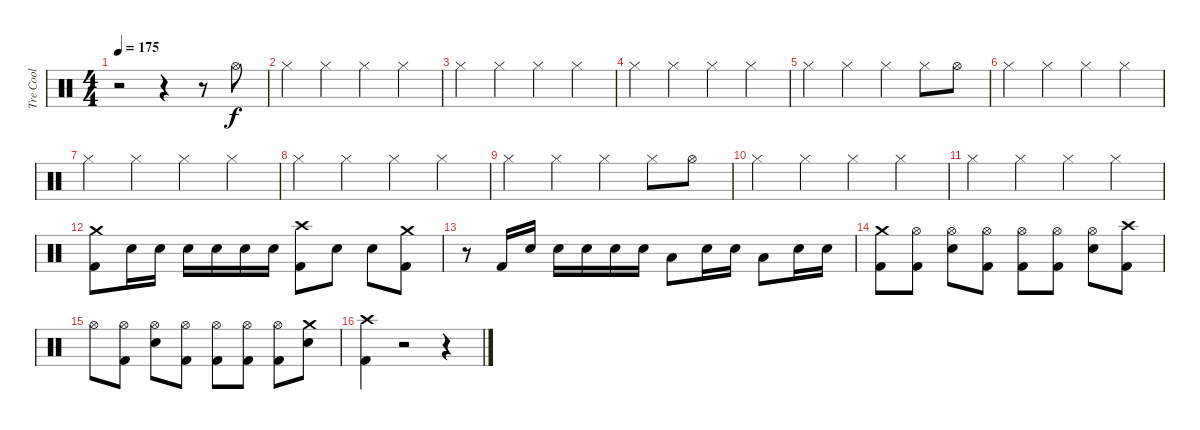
\track ("Tre Cool" "Tre Cool") {instrument percussion}
\staff {score}
\articulation defaults
\ts (4 4)
\tempo 175
\clef neutral
\ks c
r.2{dy f} r.4 r.8 "Hi-Hat (open)".8 |
"Hi-Hat (closed)".4 "Hi-Hat (closed)".4 "Hi-Hat (closed)".4 "Hi-Hat (closed)".4 |
"Hi-Hat (closed)".4 "Hi-Hat (closed)".4 "Hi-Hat (closed)".4 "Hi-Hat (closed)".4 |
"Hi-Hat (closed)".4 "Hi-Hat (closed)".4 "Hi-Hat (closed)".4 "Hi-Hat (closed)".4 |
"Hi-Hat (closed)".4 "Hi-Hat (closed)".4 "Hi-Hat (closed)".4 "Hi-Hat (closed)".8 "Hi-Hat (open)".8 |
"Hi-Hat (closed)".4 "Hi-Hat (closed)".4 "Hi-Hat (closed)".4 "Hi-Hat (closed)".4 |
"Hi-Hat (closed)".4 "Hi-Hat (closed)".4 "Hi-Hat (closed)".4 "Hi-Hat (closed)".4 |
"Hi-Hat (closed)".4 "Hi-Hat (closed)".4 "Hi-Hat (closed)".4 "Hi-Hat (closed)".4 |
"Hi-Hat (closed)".4 "Hi-Hat (closed)".4 "Hi-Hat (closed)".4 "Hi-Hat (closed)".8 "Hi-Hat (open)".8 |
"Hi-Hat (closed)".4 "Hi-Hat (closed)".4 "Hi-Hat (closed)".4 "Hi-Hat (closed)".4 |
"Hi-Hat (closed)".4 "Hi-Hat (closed)".4 "Hi-Hat (closed)".4 "Hi-Hat (closed)".4 |
("Kick (hit) 2" "Crash medium (hit)").8 "Snare (hit) 2".16 "Snare (hit) 2".16 "Snare (hit) 2".16 "Snare (hit) 2".16 "Snare (hit) 2".16 "Snare (hit) 2".16 ("Kick (hit) 2" "Crash high (hit)").8 "Snare (hit) 2".8 "Snare (hit) 2".8 ("Kick (hit) 2" "Crash medium (hit)").8 |
r.8 "Kick (hit) 2".16 "Snare (hit) 2".16 "Snare (hit) 2".16 "Snare (hit) 2".16 "Snare (hit) 2".16 "Snare (hit) 2".16 "Low Tom (hit)".8 "Snare (hit) 2".16 "Snare (hit) 2".16 "Low Tom (hit)".8 "Snare (hit) 2".16 "Snare (hit) 2".16 |
("Kick (hit) 2" "Crash medium (hit)").8 ("Kick (hit) 2" "Hi-Hat (open)").8 ("Snare (hit) 2" "Hi-Hat (open)").8 ("Kick (hit) 2" "Hi-Hat (open)").8 ("Kick (hit) 2" "Hi-Hat (open)").8 ("Kick (hit) 2" "Hi-Hat (open)").8 ("Snare (hit) 2" "Hi-Hat (open)").8 ("Kick (hit) 2" "Crash high (hit)").8 |
"Hi-Hat (open)".8 ("Kick (hit) 2" "Hi-Hat (open)").8 ("Snare (hit) 2" "Hi-Hat (open)").8 ("Kick (hit) 2" "Hi-Hat (open)").8 ("Kick (hit) 2" "Hi-Hat (open)").8 ("Kick (hit) 2" "Hi-Hat (open)").8 ("Kick (hit) 2" "Hi-Hat (open)").8 ("Snare (hit) 2" "Crash medium (hit)").8 |
("Kick (hit) 2" "Crash high (hit)").4 r.2 r.4
